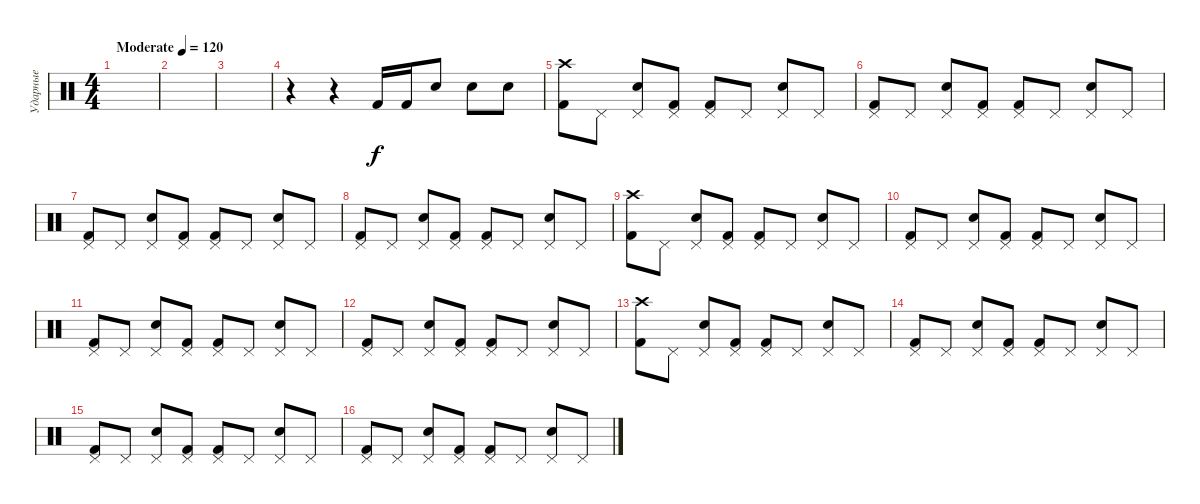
\track ("Ударные" "Ударные") {instrument percussion}
\staff {score}
\articulation defaults
\ts (4 4)
\tempo (120 "Moderate")
\clef neutral
\ks c
|
|
|
r.4 r.4 "Kick (hit) 2".16 "Kick (hit) 2".16 "Snare (hit) 2".8 "Snare (hit) 2".8 "Snare (hit) 2".8 |
("Crash high (hit)" "Kick (hit) 2").8 "Pedal Hi-Hat (hit)".8 ("Pedal Hi-Hat (hit)" "Snare (hit) 2").8 ("Pedal Hi-Hat (hit)" "Kick (hit) 2").8 ("Pedal Hi-Hat (hit)" "Kick (hit) 2").8 "Pedal Hi-Hat (hit)".8 ("Pedal Hi-Hat (hit)" "Snare (hit) 2").8 "Pedal Hi-Hat (hit)".8 |
("Pedal Hi-Hat (hit)" "Kick (hit) 2").8 "Pedal Hi-Hat (hit)".8 ("Pedal Hi-Hat (hit)" "Snare (hit) 2").8 ("Pedal Hi-Hat (hit)" "Kick (hit) 2").8 ("Pedal Hi-Hat (hit)" "Kick (hit) 2").8 "Pedal Hi-Hat (hit)".8 ("Pedal Hi-Hat (hit)" "Snare (hit) 2").8 "Pedal Hi-Hat (hit)".8 |
("Pedal Hi-Hat (hit)" "Kick (hit) 2").8 "Pedal Hi-Hat (hit)".8 ("Pedal Hi-Hat (hit)" "Snare (hit) 2").8 ("Pedal Hi-Hat (hit)" "Kick (hit) 2").8 ("Pedal Hi-Hat (hit)" "Kick (hit) 2").8 "Pedal Hi-Hat (hit)".8 ("Pedal Hi-Hat (hit)" "Snare (hit) 2").8 "Pedal Hi-Hat (hit)".8 |
("Pedal Hi-Hat (hit)" "Kick (hit) 2").8 "Pedal Hi-Hat (hit)".8 ("Pedal Hi-Hat (hit)" "Snare (hit) 2").8 ("Pedal Hi-Hat (hit)" "Kick (hit) 2").8 ("Pedal Hi-Hat (hit)" "Kick (hit) 2").8 "Pedal Hi-Hat (hit)".8 ("Pedal Hi-Hat (hit)" "Snare (hit) 2").8 "Pedal Hi-Hat (hit)".8 |
("Crash high (hit)" "Kick (hit) 2").8 "Pedal Hi-Hat (hit)".8 ("Pedal Hi-Hat (hit)" "Snare (hit) 2").8 ("Pedal Hi-Hat (hit)" "Kick (hit) 2").8 ("Pedal Hi-Hat (hit)" "Kick (hit) 2").8 "Pedal Hi-Hat (hit)".8 ("Pedal Hi-Hat (hit)" "Snare (hit) 2").8 "Pedal Hi-Hat (hit)".8 |
("Pedal Hi-Hat (hit)" "Kick (hit) 2").8 "Pedal Hi-Hat (hit)".8 ("Pedal Hi-Hat (hit)" "Snare (hit) 2").8 ("Pedal Hi-Hat (hit)" "Kick (hit) 2").8 ("Pedal Hi-Hat (hit)" "Kick (hit) 2").8 "Pedal Hi-Hat (hit)".8 ("Pedal Hi-Hat (hit)" "Snare (hit) 2").8 "Pedal Hi-Hat (hit)".8 |
("Pedal Hi-Hat (hit)" "Kick (hit) 2").8 "Pedal Hi-Hat (hit)".8 ("Pedal Hi-Hat (hit)" "Snare (hit) 2").8 ("Pedal Hi-Hat (hit)" "Kick (hit) 2").8 ("Pedal Hi-Hat (hit)" "Kick (hit) 2").8 "Pedal Hi-Hat (hit)".8 ("Pedal Hi-Hat (hit)" "Snare (hit) 2").8 "Pedal Hi-Hat (hit)".8 |
("Pedal Hi-Hat (hit)" "Kick (hit) 2").8 "Pedal Hi-Hat (hit)".8 ("Pedal Hi-Hat (hit)" "Snare (hit) 2").8 ("Pedal Hi-Hat (hit)" "Kick (hit) 2").8 ("Pedal Hi-Hat (hit)" "Kick (hit) 2").8 "Pedal Hi-Hat (hit)".8 ("Pedal Hi-Hat (hit)" "Snare (hit) 2").8 "Pedal Hi-Hat (hit)".8 |
("Crash high (hit)" "Kick (hit) 2").8 "Pedal Hi-Hat (hit)".8 ("Pedal Hi-Hat (hit)" "Snare (hit) 2").8 ("Pedal Hi-Hat (hit)" "Kick (hit) 2").8 ("Pedal Hi-Hat (hit)" "Kick (hit) 2").8 "Pedal Hi-Hat (hit)".8 ("Pedal Hi-Hat (hit)" "Snare (hit) 2").8 "Pedal Hi-Hat (hit)".8 |
("Pedal Hi-Hat (hit)" "Kick (hit) 2").8 "Pedal Hi-Hat (hit)".8 ("Pedal Hi-Hat (hit)" "Snare (hit) 2").8 ("Pedal Hi-Hat (hit)" "Kick (hit) 2").8 ("Pedal Hi-Hat (hit)" "Kick (hit) 2").8 "Pedal Hi-Hat (hit)".8 ("Pedal Hi-Hat (hit)" "Snare (hit) 2").8 "Pedal Hi-Hat (hit)".8 |
("Pedal Hi-Hat (hit)" "Kick (hit) 2").8 "Pedal Hi-Hat (hit)".8 ("Pedal Hi-Hat (hit)" "Snare (hit) 2").8 ("Pedal Hi-Hat (hit)" "Kick (hit) 2").8 ("Pedal Hi-Hat (hit)" "Kick (hit) 2").8 "Pedal Hi-Hat (hit)".8 ("Pedal Hi-Hat (hit)" "Snare (hit) 2").8 "Pedal Hi-Hat (hit)".8 |
("Pedal Hi-Hat (hit)" "Kick (hit) 2").8 "Pedal Hi-Hat (hit)".8 ("Pedal Hi-Hat (hit)" "Snare (hit) 2").8 ("Pedal Hi-Hat (hit)" "Kick (hit) 2").8 ("Pedal Hi-Hat (hit)" "Kick (hit) 2").8 "Pedal Hi-Hat (hit)".8 ("Pedal Hi-Hat (hit)" "Snare (hit) 2").8 "Pedal Hi-Hat (hit)".8
